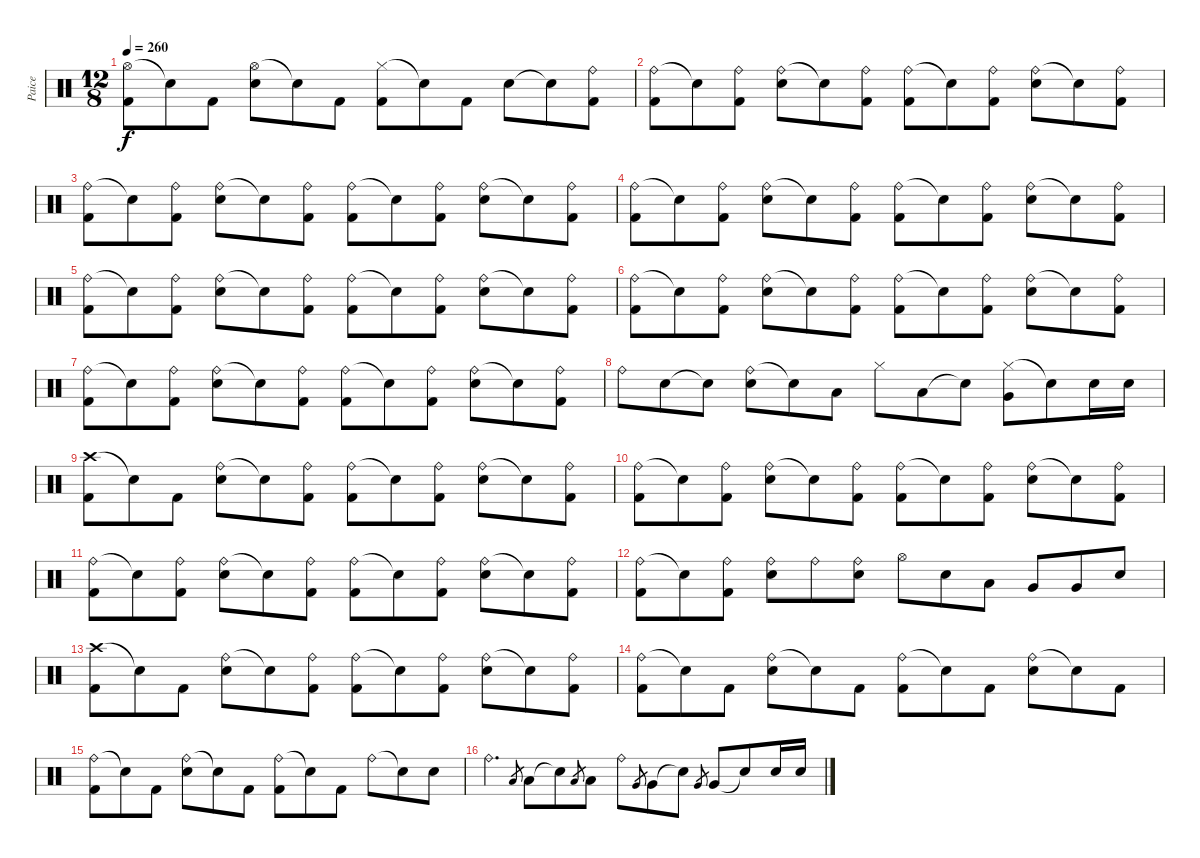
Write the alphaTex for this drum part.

\track ("Paice" "Paice") {instrument percussion}
\staff {score}
\articulation defaults
\ts (12 8)
\tempo 260
\clef neutral
\ks c
("Hi-Hat (open)" "Kick (hit) 2").8{dy f} "Snare (hit)"{t}.8 "Kick (hit) 2".8 ("Hi-Hat (open)" "Electric Snare (hit)").8 "Snare (hit)"{t}.8 "Kick (hit) 2".8 ("Hi-Hat (closed)" "Kick (hit) 2").8 "Snare (hit)"{t}.8 "Kick (hit) 2".8 "Electric Snare (hit)".8 "Snare (hit)"{t}.8 ("Ride (bell)" "Kick (hit) 2").8 |
("Ride (bell)" "Kick (hit) 2").8 "Snare (hit)"{t}.8 ("Ride (bell)" "Kick (hit) 2").8 ("Ride (bell)" "Electric Snare (hit)").8 "Snare (hit)"{t}.8 ("Ride (bell)" "Kick (hit) 2").8 ("Ride (bell)" "Kick (hit) 2").8 "Snare (hit)"{t}.8 ("Ride (bell)" "Kick (hit) 2").8 ("Ride (bell)" "Electric Snare (hit)").8 "Snare (hit)"{t}.8 ("Ride (bell)" "Kick (hit) 2").8 |
("Ride (bell)" "Kick (hit) 2").8 "Snare (hit)"{t}.8 ("Ride (bell)" "Kick (hit) 2").8 ("Ride (bell)" "Electric Snare (hit)").8 "Snare (hit)"{t}.8 ("Ride (bell)" "Kick (hit) 2").8 ("Ride (bell)" "Kick (hit) 2").8 "Snare (hit)"{t}.8 ("Ride (bell)" "Kick (hit) 2").8 ("Ride (bell)" "Electric Snare (hit)").8 "Snare (hit)"{t}.8 ("Ride (bell)" "Kick (hit) 2").8 |
("Ride (bell)" "Kick (hit) 2").8 "Snare (hit)"{t}.8 ("Ride (bell)" "Kick (hit) 2").8 ("Ride (bell)" "Electric Snare (hit)").8 "Snare (hit)"{t}.8 ("Ride (bell)" "Kick (hit) 2").8 ("Ride (bell)" "Kick (hit) 2").8 "Snare (hit)"{t}.8 ("Ride (bell)" "Kick (hit) 2").8 ("Ride (bell)" "Electric Snare (hit)").8 "Snare (hit)"{t}.8 ("Ride (bell)" "Kick (hit) 2").8 |
("Ride (bell)" "Kick (hit) 2").8 "Snare (hit)"{t}.8 ("Ride (bell)" "Kick (hit) 2").8 ("Ride (bell)" "Electric Snare (hit)").8 "Snare (hit)"{t}.8 ("Ride (bell)" "Kick (hit) 2").8 ("Ride (bell)" "Kick (hit) 2").8 "Snare (hit)"{t}.8 ("Ride (bell)" "Kick (hit) 2").8 ("Ride (bell)" "Electric Snare (hit)").8 "Snare (hit)"{t}.8 ("Ride (bell)" "Kick (hit) 2").8 |
("Ride (bell)" "Kick (hit) 2").8 "Snare (hit)"{t}.8 ("Ride (bell)" "Kick (hit) 2").8 ("Ride (bell)" "Electric Snare (hit)").8 "Snare (hit)"{t}.8 ("Ride (bell)" "Kick (hit) 2").8 ("Ride (bell)" "Kick (hit) 2").8 "Snare (hit)"{t}.8 ("Ride (bell)" "Kick (hit) 2").8 ("Ride (bell)" "Electric Snare (hit)").8 "Snare (hit)"{t}.8 ("Ride (bell)" "Kick (hit) 2").8 |
("Ride (bell)" "Kick (hit) 2").8 "Snare (hit)"{t}.8 ("Ride (bell)" "Kick (hit) 2").8 ("Ride (bell)" "Electric Snare (hit)").8 "Snare (hit)"{t}.8 ("Ride (bell)" "Kick (hit) 2").8 ("Ride (bell)" "Kick (hit) 2").8 "Snare (hit)"{t}.8 ("Ride (bell)" "Kick (hit) 2").8 ("Ride (bell)" "Electric Snare (hit)").8 "Snare (hit)"{t}.8 ("Ride (bell)" "Kick (hit) 2").8 |
"Ride (bell)".8 "Electric Snare (hit)".8 "Snare (hit)"{t}.8 ("Ride (bell)" "Electric Snare (hit)").8 "Snare (hit)"{t}.8 "Low Tom (hit)".8 "Hi-Hat (closed)".8 "Low Tom (hit)".8 "Snare (hit)"{t}.8 ("Hi-Hat (closed)" "Very Low Tom (hit)").8 "Snare (hit)"{t}.8 "Electric Snare (hit)".16 "Electric Snare (hit)".16 |
("Crash high (hit)" "Kick (hit) 2").8 "Snare (hit)"{t}.8 "Kick (hit) 2".8 ("Ride (bell)" "Electric Snare (hit)").8 "Snare (hit)"{t}.8 ("Ride (bell)" "Kick (hit) 2").8 ("Ride (bell)" "Kick (hit) 2").8 "Snare (hit)"{t}.8 ("Ride (bell)" "Kick (hit) 2").8 ("Ride (bell)" "Electric Snare (hit)").8 "Snare (hit)"{t}.8 ("Ride (bell)" "Kick (hit) 2").8 |
("Ride (bell)" "Kick (hit) 2").8 "Snare (hit)"{t}.8 ("Ride (bell)" "Kick (hit) 2").8 ("Ride (bell)" "Electric Snare (hit)").8 "Snare (hit)"{t}.8 ("Ride (bell)" "Kick (hit) 2").8 ("Ride (bell)" "Kick (hit) 2").8 "Snare (hit)"{t}.8 ("Ride (bell)" "Kick (hit) 2").8 ("Ride (bell)" "Electric Snare (hit)").8 "Snare (hit)"{t}.8 ("Ride (bell)" "Kick (hit) 2").8 |
("Ride (bell)" "Kick (hit) 2").8 "Snare (hit)"{t}.8 ("Ride (bell)" "Kick (hit) 2").8 ("Ride (bell)" "Electric Snare (hit)").8 "Snare (hit)"{t}.8 ("Ride (bell)" "Kick (hit) 2").8 ("Ride (bell)" "Kick (hit) 2").8 "Snare (hit)"{t}.8 ("Ride (bell)" "Kick (hit) 2").8 ("Ride (bell)" "Electric Snare (hit)").8 "Snare (hit)"{t}.8 ("Ride (bell)" "Kick (hit) 2").8 |
("Ride (bell)" "Kick (hit) 2").8 "Snare (hit)"{t}.8 ("Ride (bell)" "Kick (hit) 2").8 ("Ride (bell)" "Electric Snare (hit)").8 "Ride (bell)".8 ("Ride (bell)" "Electric Snare (hit)").8 "Hi-Hat (open)".8 "Electric Snare (hit)".8 "Low Tom (hit)".8 "Very Low Tom (hit)".8 "Very Low Tom (hit)".8 "Electric Snare (hit)".8 |
("Crash high (hit)" "Kick (hit) 2").8 "Snare (hit)"{t}.8 "Kick (hit) 2".8 ("Ride (bell)" "Electric Snare (hit)").8 "Snare (hit)"{t}.8 ("Ride (bell)" "Kick (hit) 2").8 ("Ride (bell)" "Kick (hit) 2").8 "Snare (hit)"{t}.8 ("Ride (bell)" "Kick (hit) 2").8 ("Ride (bell)" "Electric Snare (hit)").8 "Snare (hit)"{t}.8 ("Ride (bell)" "Kick (hit) 2").8 |
("Ride (bell)" "Kick (hit) 2").8 "Snare (hit)"{t}.8 "Kick (hit) 2".8 ("Ride (bell)" "Electric Snare (hit)").8 "Snare (hit)"{t}.8 "Kick (hit) 2".8 ("Ride (bell)" "Kick (hit) 2").8 "Snare (hit)"{t}.8 "Kick (hit) 2".8 ("Ride (bell)" "Electric Snare (hit)").8 "Snare (hit)"{t}.8 "Kick (hit) 2".8 |
("Ride (bell)" "Kick (hit) 2").8 "Snare (hit)"{t}.8 "Kick (hit) 2".8 ("Ride (bell)" "Electric Snare (hit)").8 "Snare (hit)"{t}.8 "Kick (hit) 2".8 ("Ride (bell)" "Kick (hit) 2").8 "Snare (hit)"{t}.8 "Kick (hit) 2".8 "Ride (bell)".8 "Snare (hit)"{t}.8 "Electric Snare (hit)".8 |
"Ride (bell)".4{d} "Low Tom (hit)".8{gr} "Low Tom (hit)".8 "Snare (hit)"{t}.8 "Low Tom (hit)".8{gr} "Low Tom (hit)".8 "Ride (bell)".8 "Very Low Tom (hit)".8{gr} "Very Low Tom (hit)".8 "Snare (hit)"{t}.8 "Very Low Tom (hit)".8{gr} "Very Low Tom (hit)".8 "Snare (hit)"{t}.8 "Electric Snare (hit)".16 "Electric Snare (hit)".16
